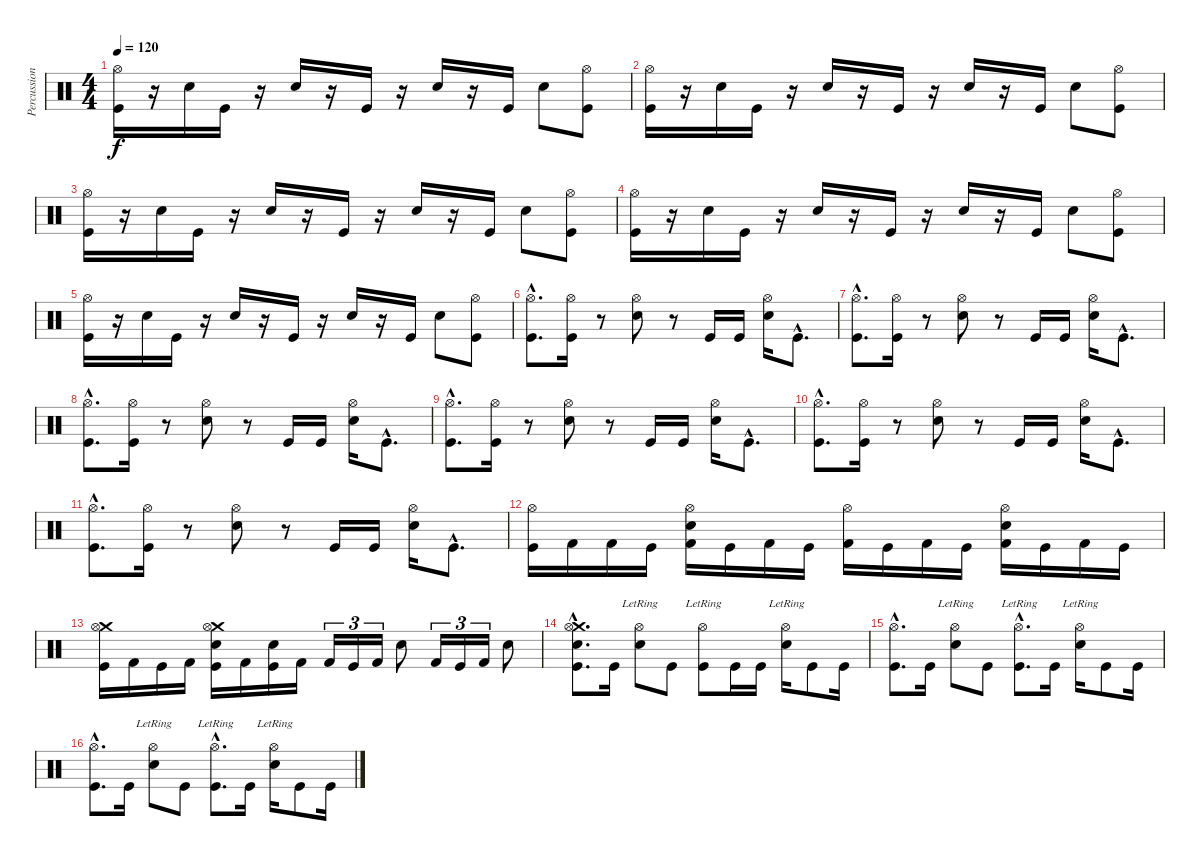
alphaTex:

\track ("Percussions" "Percussion") {instrument percussion}
\staff {score}
\articulation defaults
\ts (4 4)
\tempo 120
\clef neutral
\ks c
("Hi-Hat (open)" "Kick (hit)").16{dy f} r.16 "Snare (hit) 2".16 "Kick (hit)".16 r.16 "Snare (hit) 2".16 r.16 "Kick (hit)".16 r.16 "Snare (hit) 2".16 r.16 "Kick (hit)".16 "Snare (hit) 2".8 ("Hi-Hat (open)" "Kick (hit)").8 |
("Hi-Hat (open)" "Kick (hit)").16 r.16 "Snare (hit) 2".16 "Kick (hit)".16 r.16 "Snare (hit) 2".16 r.16 "Kick (hit)".16 r.16 "Snare (hit) 2".16 r.16 "Kick (hit)".16 "Snare (hit) 2".8 ("Hi-Hat (open)" "Kick (hit)").8 |
("Hi-Hat (open)" "Kick (hit)").16 r.16 "Snare (hit) 2".16 "Kick (hit)".16 r.16 "Snare (hit) 2".16 r.16 "Kick (hit)".16 r.16 "Snare (hit) 2".16 r.16 "Kick (hit)".16 "Snare (hit) 2".8 ("Hi-Hat (open)" "Kick (hit)").8 |
("Hi-Hat (open)" "Kick (hit)").16 r.16 "Snare (hit) 2".16 "Kick (hit)".16 r.16 "Snare (hit) 2".16 r.16 "Kick (hit)".16 r.16 "Snare (hit) 2".16 r.16 "Kick (hit)".16 "Snare (hit) 2".8 ("Hi-Hat (open)" "Kick (hit)").8 |
("Hi-Hat (open)" "Kick (hit)").16 r.16 "Snare (hit) 2".16 "Kick (hit)".16 r.16 "Snare (hit) 2".16 r.16 "Kick (hit)".16 r.16 "Snare (hit) 2".16 r.16 "Kick (hit)".16 "Snare (hit) 2".8 ("Hi-Hat (open)" "Kick (hit)").8 |
("Hi-Hat (open)"{hac} "Kick (hit)"{hac}).8{d} ("Hi-Hat (open)" "Kick (hit)").16 r.8 ("Hi-Hat (open)" "Snare (hit) 2").8 r.8 "Kick (hit)".16 "Kick (hit)".16 ("Hi-Hat (open)" "Snare (hit) 2").16 "Kick (hit)"{hac}.8{d} |
("Hi-Hat (open)"{hac} "Kick (hit)"{hac}).8{d} ("Hi-Hat (open)" "Kick (hit)").16 r.8 ("Hi-Hat (open)" "Snare (hit) 2").8 r.8 "Kick (hit)".16 "Kick (hit)".16 ("Hi-Hat (open)" "Snare (hit) 2").16 "Kick (hit)"{hac}.8{d} |
("Hi-Hat (open)"{hac} "Kick (hit)"{hac}).8{d} ("Hi-Hat (open)" "Kick (hit)").16 r.8 ("Hi-Hat (open)" "Snare (hit) 2").8 r.8 "Kick (hit)".16 "Kick (hit)".16 ("Hi-Hat (open)" "Snare (hit) 2").16 "Kick (hit)"{hac}.8{d} |
("Hi-Hat (open)"{hac} "Kick (hit)"{hac}).8{d} ("Hi-Hat (open)" "Kick (hit)").16 r.8 ("Hi-Hat (open)" "Snare (hit) 2").8 r.8 "Kick (hit)".16 "Kick (hit)".16 ("Hi-Hat (open)" "Snare (hit) 2").16 "Kick (hit)"{hac}.8{d} |
("Hi-Hat (open)"{hac} "Kick (hit)"{hac}).8{d} ("Hi-Hat (open)" "Kick (hit)").16 r.8 ("Hi-Hat (open)" "Snare (hit) 2").8 r.8 "Kick (hit)".16 "Kick (hit)".16 ("Hi-Hat (open)" "Snare (hit) 2").16 "Kick (hit)"{hac}.8{d} |
("Hi-Hat (open)"{hac} "Kick (hit)"{hac}).8{d} ("Hi-Hat (open)" "Kick (hit)").16 r.8 ("Hi-Hat (open)" "Snare (hit) 2").8 r.8 "Kick (hit)".16 "Kick (hit)".16 ("Hi-Hat (open)" "Snare (hit) 2").16 "Kick (hit)"{hac}.8{d} |
("Hi-Hat (open)" "Kick (hit)").16 "Kick (hit) 2".16 "Kick (hit) 2".16 "Kick (hit)".16 ("Hi-Hat (open)" "Snare (hit) 2" "Kick (hit) 2").16 "Kick (hit)".16 "Kick (hit) 2".16 "Kick (hit)".16 ("Hi-Hat (open)" "Kick (hit) 2").16 "Kick (hit)".16 "Kick (hit) 2".16 "Kick (hit)".16 ("Hi-Hat (open)" "Snare (hit) 2" "Kick (hit) 2").16 "Kick (hit)".16 "Kick (hit) 2".16 "Kick (hit)".16 |
("Crash medium (hit)" "Hi-Hat (open)" "Kick (hit)").16 "Kick (hit) 2".16 "Kick (hit)".16 "Kick (hit) 2".16 ("Crash medium (hit)" "Hi-Hat (open)" "Snare (hit) 2" "Kick (hit)").16 "Kick (hit) 2".16 ("Snare (hit) 2" "Kick (hit)").16 "Kick (hit) 2".16 "Kick (hit) 2".16{tu (3 2)} "Kick (hit)".16{tu (3 2)} "Kick (hit) 2".16{tu (3 2)} "Snare (hit) 2".8 "Kick (hit) 2".16{tu (3 2)} "Kick (hit)".16{tu (3 2)} "Kick (hit) 2".16{tu (3 2)} "Snare (hit) 2".8 |
("Crash medium (hit)"{hac} "Hi-Hat (open)"{hac} "Snare (hit) 2"{hac} "Kick (hit)"{hac}).8{d} "Kick (hit)".16 ("Hi-Hat (open)"{lr} "Snare (hit) 2").8 "Kick (hit)".8 ("Hi-Hat (open)"{lr} "Kick (hit)").8 "Kick (hit)".16 "Kick (hit)".16 ("Hi-Hat (open)"{lr} "Snare (hit) 2").16 "Kick (hit)".8 "Kick (hit)".16 |
("Hi-Hat (open)"{hac} "Kick (hit)"{hac}).8{d} "Kick (hit)".16 ("Hi-Hat (open)"{lr} "Snare (hit) 2").8 "Kick (hit)".8 ("Hi-Hat (open)"{hac lr} "Kick (hit)"{hac}).8{d} "Kick (hit)".16 ("Hi-Hat (open)"{lr} "Snare (hit) 2").16 "Kick (hit)".8 "Kick (hit)".16 |
("Hi-Hat (open)"{hac} "Kick (hit)"{hac}).8{d} "Kick (hit)".16 ("Hi-Hat (open)"{lr} "Snare (hit) 2").8 "Kick (hit)".8 ("Hi-Hat (open)"{hac lr} "Kick (hit)"{hac}).8{d} "Kick (hit)".16 ("Hi-Hat (open)"{lr} "Snare (hit) 2").16 "Kick (hit)".8 "Kick (hit)".16
